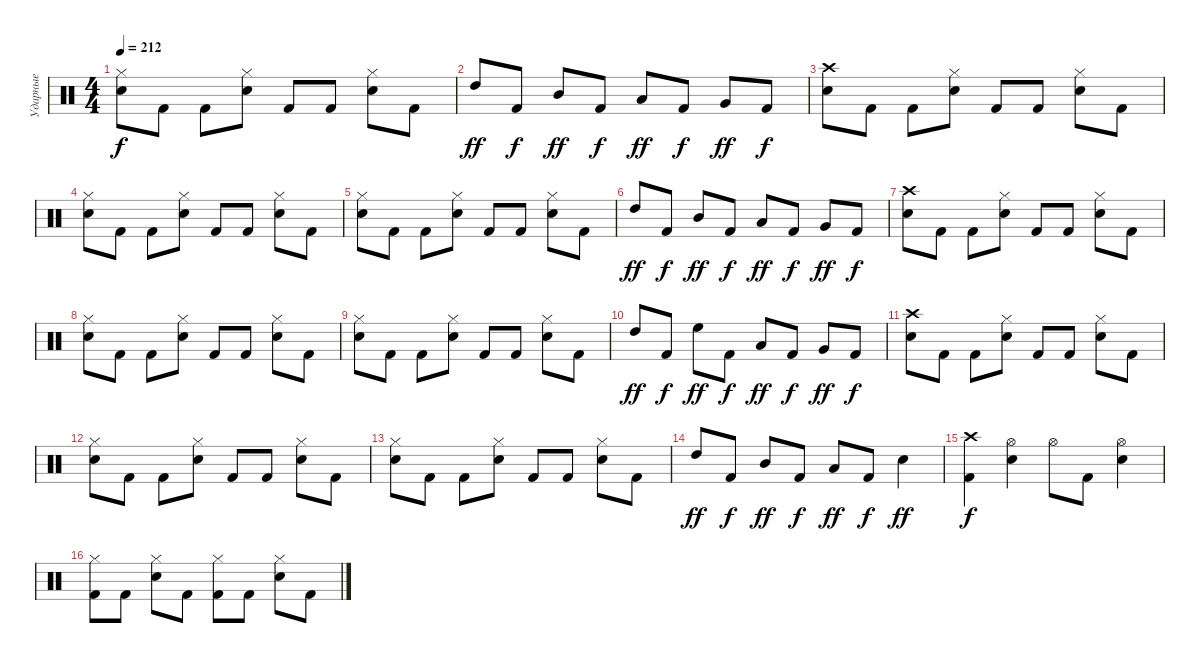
\track ("Ударные" "Ударные") {instrument percussion}
\staff {score}
\articulation defaults
\ts (4 4)
\tempo 212
\clef neutral
\ks c
("Hi-Hat (closed)" "Electric Snare (hit)").8{dy f} "Kick (hit) 2".8 "Kick (hit) 2".8 ("Hi-Hat (closed)" "Electric Snare (hit)").8 "Kick (hit) 2".8 "Kick (hit) 2".8 ("Hi-Hat (closed)" "Electric Snare (hit)").8 "Kick (hit) 2".8 |
"High Tom (hit)".8{dy ff} "Kick (hit) 2".8{dy f} "Mid Tom (hit)".8{dy ff} "Kick (hit) 2".8{dy f} "Low Tom (hit)".8{dy ff} "Kick (hit) 2".8{dy f} "Very Low Tom (hit)".8{dy ff} "Kick (hit) 2".8{dy f} |
("Crash high (hit)" "Electric Snare (hit)").8 "Kick (hit) 2".8 "Kick (hit) 2".8 ("Hi-Hat (closed)" "Electric Snare (hit)").8 "Kick (hit) 2".8 "Kick (hit) 2".8 ("Hi-Hat (closed)" "Electric Snare (hit)").8 "Kick (hit) 2".8 |
("Hi-Hat (closed)" "Electric Snare (hit)").8 "Kick (hit) 2".8 "Kick (hit) 2".8 ("Hi-Hat (closed)" "Electric Snare (hit)").8 "Kick (hit) 2".8 "Kick (hit) 2".8 ("Hi-Hat (closed)" "Electric Snare (hit)").8 "Kick (hit) 2".8 |
("Hi-Hat (closed)" "Electric Snare (hit)").8 "Kick (hit) 2".8 "Kick (hit) 2".8 ("Hi-Hat (closed)" "Electric Snare (hit)").8 "Kick (hit) 2".8 "Kick (hit) 2".8 ("Hi-Hat (closed)" "Electric Snare (hit)").8 "Kick (hit) 2".8 |
"High Tom (hit)".8{dy ff} "Kick (hit) 2".8{dy f} "Mid Tom (hit)".8{dy ff} "Kick (hit) 2".8{dy f} "Low Tom (hit)".8{dy ff} "Kick (hit) 2".8{dy f} "Very Low Tom (hit)".8{dy ff} "Kick (hit) 2".8{dy f} |
("Crash high (hit)" "Electric Snare (hit)").8 "Kick (hit) 2".8 "Kick (hit) 2".8 ("Hi-Hat (closed)" "Electric Snare (hit)").8 "Kick (hit) 2".8 "Kick (hit) 2".8 ("Hi-Hat (closed)" "Electric Snare (hit)").8 "Kick (hit) 2".8 |
("Hi-Hat (closed)" "Electric Snare (hit)").8 "Kick (hit) 2".8 "Kick (hit) 2".8 ("Hi-Hat (closed)" "Electric Snare (hit)").8 "Kick (hit) 2".8 "Kick (hit) 2".8 ("Hi-Hat (closed)" "Electric Snare (hit)").8 "Kick (hit) 2".8 |
("Hi-Hat (closed)" "Electric Snare (hit)").8 "Kick (hit) 2".8 "Kick (hit) 2".8 ("Hi-Hat (closed)" "Electric Snare (hit)").8 "Kick (hit) 2".8 "Kick (hit) 2".8 ("Hi-Hat (closed)" "Electric Snare (hit)").8 "Kick (hit) 2".8 |
"High Tom (hit)".8{dy ff} "Kick (hit) 2".8{dy f} "High Floor Tom (hit)".8{dy ff} "Kick (hit) 2".8{dy f} "Low Tom (hit)".8{dy ff} "Kick (hit) 2".8{dy f} "Very Low Tom (hit)".8{dy ff} "Kick (hit) 2".8{dy f} |
("Crash high (hit)" "Electric Snare (hit)").8 "Kick (hit) 2".8 "Kick (hit) 2".8 ("Hi-Hat (closed)" "Electric Snare (hit)").8 "Kick (hit) 2".8 "Kick (hit) 2".8 ("Hi-Hat (closed)" "Electric Snare (hit)").8 "Kick (hit) 2".8 |
("Hi-Hat (closed)" "Electric Snare (hit)").8 "Kick (hit) 2".8 "Kick (hit) 2".8 ("Hi-Hat (closed)" "Electric Snare (hit)").8 "Kick (hit) 2".8 "Kick (hit) 2".8 ("Hi-Hat (closed)" "Electric Snare (hit)").8 "Kick (hit) 2".8 |
("Hi-Hat (closed)" "Electric Snare (hit)").8 "Kick (hit) 2".8 "Kick (hit) 2".8 ("Hi-Hat (closed)" "Electric Snare (hit)").8 "Kick (hit) 2".8 "Kick (hit) 2".8 ("Hi-Hat (closed)" "Electric Snare (hit)").8 "Kick (hit) 2".8 |
"High Tom (hit)".8{dy ff} "Kick (hit) 2".8{dy f} "Mid Tom (hit)".8{dy ff} "Kick (hit) 2".8{dy f} "Low Tom (hit)".8{dy ff} "Kick (hit) 2".8{dy f} "Electric Snare (hit)".4{dy ff} |
("Crash high (hit)" "Kick (hit) 2").4{dy f} ("Hi-Hat (open)" "Electric Snare (hit)").4 "Hi-Hat (open)".8 "Kick (hit) 2".8 ("Hi-Hat (open)" "Electric Snare (hit)").4 |
("Hi-Hat (closed)" "Kick (hit) 2").8 "Kick (hit) 2".8 ("Hi-Hat (closed)" "Electric Snare (hit)").8 "Kick (hit) 2".8 ("Hi-Hat (closed)" "Kick (hit) 2").8 "Kick (hit) 2".8 ("Hi-Hat (closed)" "Electric Snare (hit)").8 "Kick (hit) 2".8
